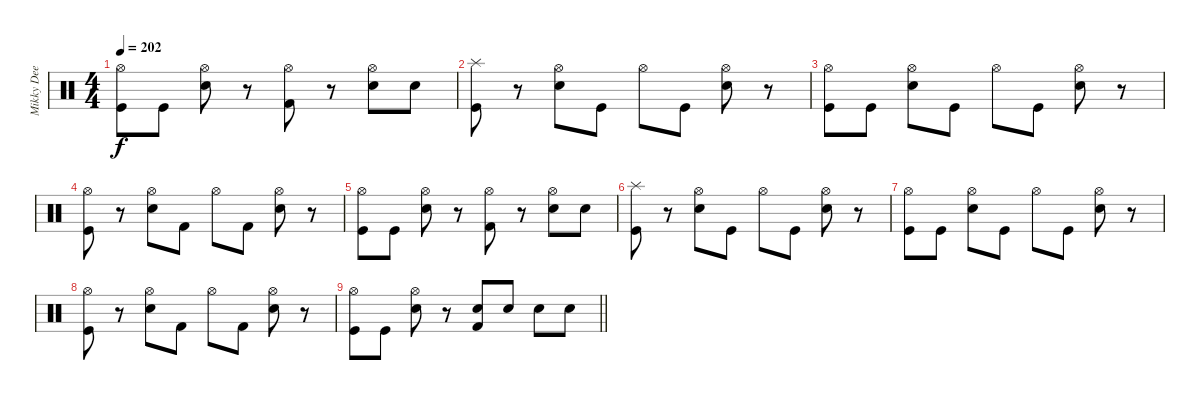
\track ("Mikky Dee" "Mikky Dee") {instrument percussion}
\staff {score}
\articulation defaults
\ts (4 4)
\tempo 202
\clef neutral
\ks c
("Hi-Hat (open)" "Kick (hit)").8{dy f} "Kick (hit)".8 ("Hi-Hat (open)" "Electric Snare (hit)").8 r.8 ("Hi-Hat (open)" "Kick (hit) 2").8 r.8 ("Hi-Hat (open)" "Electric Snare (hit)").8 "Electric Snare (hit)".8 |
("Splash (hit)" "Kick (hit)").8 r.8 ("Hi-Hat (open)" "Electric Snare (hit)").8 "Kick (hit)".8 "Hi-Hat (open)".8 "Kick (hit)".8 ("Hi-Hat (open)" "Electric Snare (hit)").8 r.8 |
("Hi-Hat (open)" "Kick (hit)").8 "Kick (hit)".8 ("Hi-Hat (open)" "Electric Snare (hit)").8 "Kick (hit)".8 "Hi-Hat (open)".8 "Kick (hit)".8 ("Hi-Hat (open)" "Electric Snare (hit)").8 r.8 |
("Hi-Hat (open)" "Kick (hit)").8 r.8 ("Hi-Hat (open)" "Electric Snare (hit)").8 "Kick (hit) 2".8 "Hi-Hat (open)".8 "Kick (hit) 2".8 ("Hi-Hat (open)" "Electric Snare (hit)").8 r.8 |
("Hi-Hat (open)" "Kick (hit)").8 "Kick (hit)".8 ("Hi-Hat (open)" "Electric Snare (hit)").8 r.8 ("Hi-Hat (open)" "Kick (hit) 2").8 r.8 ("Hi-Hat (open)" "Electric Snare (hit)").8 "Electric Snare (hit)".8 |
("Splash (hit)" "Kick (hit)").8 r.8 ("Hi-Hat (open)" "Electric Snare (hit)").8 "Kick (hit)".8 "Hi-Hat (open)".8 "Kick (hit)".8 ("Hi-Hat (open)" "Electric Snare (hit)").8 r.8 |
("Hi-Hat (open)" "Kick (hit)").8 "Kick (hit)".8 ("Hi-Hat (open)" "Electric Snare (hit)").8 "Kick (hit)".8 "Hi-Hat (open)".8 "Kick (hit)".8 ("Hi-Hat (open)" "Electric Snare (hit)").8 r.8 |
("Hi-Hat (open)" "Kick (hit)").8 r.8 ("Hi-Hat (open)" "Electric Snare (hit)").8 "Kick (hit) 2".8 "Hi-Hat (open)".8 "Kick (hit) 2".8 ("Hi-Hat (open)" "Electric Snare (hit)").8 r.8 |
\barLineRight lightlight
("Hi-Hat (open)" "Kick (hit)").8 "Kick (hit)".8 ("Hi-Hat (open)" "Electric Snare (hit)").8 r.8 ("Electric Snare (hit)" "Kick (hit) 2").8 "Electric Snare (hit)".8 "Electric Snare (hit)".8 "Electric Snare (hit)".8
